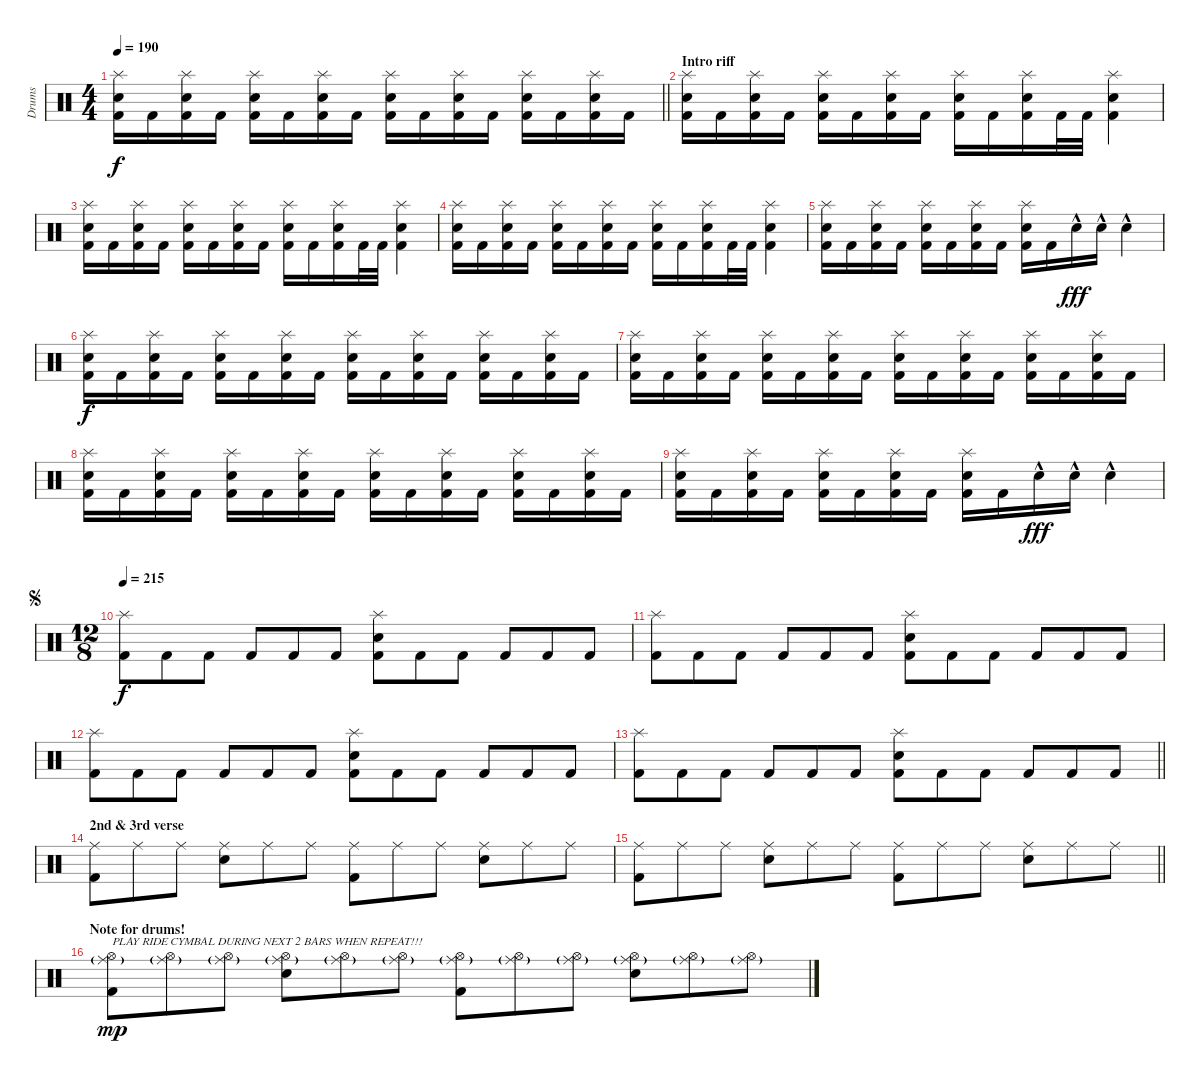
\track ("Drums" "Drums") {instrument percussion bank 127}
\staff {score}
\articulation defaults
\ts (4 4)
\tempo 190
\clef neutral
\barLineRight lightlight
\ks c
("Splash (hit)" "Electric Snare (hit)" "Kick (hit) 2").16{dy f} "Kick (hit) 2".16 ("Splash (hit)" "Electric Snare (hit)" "Kick (hit) 2").16 "Kick (hit) 2".16 ("Splash (hit)" "Electric Snare (hit)" "Kick (hit) 2").16 "Kick (hit) 2".16 ("Splash (hit)" "Electric Snare (hit)" "Kick (hit) 2").16 "Kick (hit) 2".16 ("Splash (hit)" "Electric Snare (hit)" "Kick (hit) 2").16 "Kick (hit) 2".16 ("Splash (hit)" "Electric Snare (hit)" "Kick (hit) 2").16 "Kick (hit) 2".16 ("Splash (hit)" "Electric Snare (hit)" "Kick (hit) 2").16 "Kick (hit) 2".16 ("Splash (hit)" "Electric Snare (hit)" "Kick (hit) 2").16 "Kick (hit) 2".16 |
\section ("" "Intro riff")
("Splash (hit)" "Electric Snare (hit)" "Kick (hit) 2").16 "Kick (hit) 2".16 ("Splash (hit)" "Electric Snare (hit)" "Kick (hit) 2").16 "Kick (hit) 2".16 ("Splash (hit)" "Electric Snare (hit)" "Kick (hit) 2").16 "Kick (hit) 2".16 ("Splash (hit)" "Electric Snare (hit)" "Kick (hit) 2").16 "Kick (hit) 2".16 ("Splash (hit)" "Electric Snare (hit)" "Kick (hit) 2").16 "Kick (hit) 2".16 ("Splash (hit)" "Electric Snare (hit)" "Kick (hit) 2").16 "Kick (hit) 2".32 "Kick (hit) 2".32 ("Splash (hit)" "Electric Snare (hit)" "Kick (hit) 2").4 |
("Splash (hit)" "Electric Snare (hit)" "Kick (hit) 2").16 "Kick (hit) 2".16 ("Splash (hit)" "Electric Snare (hit)" "Kick (hit) 2").16 "Kick (hit) 2".16 ("Splash (hit)" "Electric Snare (hit)" "Kick (hit) 2").16 "Kick (hit) 2".16 ("Splash (hit)" "Electric Snare (hit)" "Kick (hit) 2").16 "Kick (hit) 2".16 ("Splash (hit)" "Electric Snare (hit)" "Kick (hit) 2").16 "Kick (hit) 2".16 ("Splash (hit)" "Electric Snare (hit)" "Kick (hit) 2").16 "Kick (hit) 2".32 "Kick (hit) 2".32 ("Splash (hit)" "Electric Snare (hit)" "Kick (hit) 2").4 |
("Splash (hit)" "Electric Snare (hit)" "Kick (hit) 2").16 "Kick (hit) 2".16 ("Splash (hit)" "Electric Snare (hit)" "Kick (hit) 2").16 "Kick (hit) 2".16 ("Splash (hit)" "Electric Snare (hit)" "Kick (hit) 2").16 "Kick (hit) 2".16 ("Splash (hit)" "Electric Snare (hit)" "Kick (hit) 2").16 "Kick (hit) 2".16 ("Splash (hit)" "Electric Snare (hit)" "Kick (hit) 2").16 "Kick (hit) 2".16 ("Splash (hit)" "Electric Snare (hit)" "Kick (hit) 2").16 "Kick (hit) 2".32 "Kick (hit) 2".32 ("Splash (hit)" "Electric Snare (hit)" "Kick (hit) 2").4 |
("Splash (hit)" "Electric Snare (hit)" "Kick (hit) 2").16 "Kick (hit) 2".16 ("Splash (hit)" "Electric Snare (hit)" "Kick (hit) 2").16 "Kick (hit) 2".16 ("Splash (hit)" "Electric Snare (hit)" "Kick (hit) 2").16 "Kick (hit) 2".16 ("Splash (hit)" "Electric Snare (hit)" "Kick (hit) 2").16 "Kick (hit) 2".16 ("Splash (hit)" "Electric Snare (hit)" "Kick (hit) 2").16 "Kick (hit) 2".16 "Electric Snare (hit)"{hac}.16{dy fff} "Electric Snare (hit)"{hac}.16 "Electric Snare (hit)"{hac}.4 |
("Splash (hit)" "Electric Snare (hit)" "Kick (hit) 2").16{dy f} "Kick (hit) 2".16 ("Splash (hit)" "Electric Snare (hit)" "Kick (hit) 2").16 "Kick (hit) 2".16 ("Splash (hit)" "Electric Snare (hit)" "Kick (hit) 2").16 "Kick (hit) 2".16 ("Splash (hit)" "Electric Snare (hit)" "Kick (hit) 2").16 "Kick (hit) 2".16 ("Splash (hit)" "Electric Snare (hit)" "Kick (hit) 2").16 "Kick (hit) 2".16 ("Splash (hit)" "Electric Snare (hit)" "Kick (hit) 2").16 "Kick (hit) 2".16 ("Splash (hit)" "Electric Snare (hit)" "Kick (hit) 2").16 "Kick (hit) 2".16 ("Splash (hit)" "Electric Snare (hit)" "Kick (hit) 2").16 "Kick (hit) 2".16 |
("Splash (hit)" "Electric Snare (hit)" "Kick (hit) 2").16 "Kick (hit) 2".16 ("Splash (hit)" "Electric Snare (hit)" "Kick (hit) 2").16 "Kick (hit) 2".16 ("Splash (hit)" "Electric Snare (hit)" "Kick (hit) 2").16 "Kick (hit) 2".16 ("Splash (hit)" "Electric Snare (hit)" "Kick (hit) 2").16 "Kick (hit) 2".16 ("Splash (hit)" "Electric Snare (hit)" "Kick (hit) 2").16 "Kick (hit) 2".16 ("Splash (hit)" "Electric Snare (hit)" "Kick (hit) 2").16 "Kick (hit) 2".16 ("Splash (hit)" "Electric Snare (hit)" "Kick (hit) 2").16 "Kick (hit) 2".16 ("Splash (hit)" "Electric Snare (hit)" "Kick (hit) 2").16 "Kick (hit) 2".16 |
("Splash (hit)" "Electric Snare (hit)" "Kick (hit) 2").16 "Kick (hit) 2".16 ("Splash (hit)" "Electric Snare (hit)" "Kick (hit) 2").16 "Kick (hit) 2".16 ("Splash (hit)" "Electric Snare (hit)" "Kick (hit) 2").16 "Kick (hit) 2".16 ("Splash (hit)" "Electric Snare (hit)" "Kick (hit) 2").16 "Kick (hit) 2".16 ("Splash (hit)" "Electric Snare (hit)" "Kick (hit) 2").16 "Kick (hit) 2".16 ("Splash (hit)" "Electric Snare (hit)" "Kick (hit) 2").16 "Kick (hit) 2".16 ("Splash (hit)" "Electric Snare (hit)" "Kick (hit) 2").16 "Kick (hit) 2".16 ("Splash (hit)" "Electric Snare (hit)" "Kick (hit) 2").16 "Kick (hit) 2".16 |
("Splash (hit)" "Electric Snare (hit)" "Kick (hit) 2").16 "Kick (hit) 2".16 ("Splash (hit)" "Electric Snare (hit)" "Kick (hit) 2").16 "Kick (hit) 2".16 ("Splash (hit)" "Electric Snare (hit)" "Kick (hit) 2").16 "Kick (hit) 2".16 ("Splash (hit)" "Electric Snare (hit)" "Kick (hit) 2").16 "Kick (hit) 2".16 ("Splash (hit)" "Electric Snare (hit)" "Kick (hit) 2").16 "Kick (hit) 2".16 "Electric Snare (hit)"{hac}.16{dy fff} "Electric Snare (hit)"{hac}.16 "Electric Snare (hit)"{hac}.4 |
\ts (12 8)
\jump segno
\tempo 215
("Splash (hit)" "Kick (hit) 2").8{dy f} "Kick (hit) 2".8 "Kick (hit) 2".8 "Kick (hit) 2".8 "Kick (hit) 2".8 "Kick (hit) 2".8 ("Splash (hit)" "Electric Snare (hit)" "Kick (hit) 2").8 "Kick (hit) 2".8 "Kick (hit) 2".8 "Kick (hit) 2".8 "Kick (hit) 2".8 "Kick (hit) 2".8 |
("Splash (hit)" "Kick (hit) 2").8 "Kick (hit) 2".8 "Kick (hit) 2".8 "Kick (hit) 2".8 "Kick (hit) 2".8 "Kick (hit) 2".8 ("Splash (hit)" "Electric Snare (hit)" "Kick (hit) 2").8 "Kick (hit) 2".8 "Kick (hit) 2".8 "Kick (hit) 2".8 "Kick (hit) 2".8 "Kick (hit) 2".8 |
("Splash (hit)" "Kick (hit) 2").8 "Kick (hit) 2".8 "Kick (hit) 2".8 "Kick (hit) 2".8 "Kick (hit) 2".8 "Kick (hit) 2".8 ("Splash (hit)" "Electric Snare (hit)" "Kick (hit) 2").8 "Kick (hit) 2".8 "Kick (hit) 2".8 "Kick (hit) 2".8 "Kick (hit) 2".8 "Kick (hit) 2".8 |
\barLineRight lightlight
("Splash (hit)" "Kick (hit) 2").8 "Kick (hit) 2".8 "Kick (hit) 2".8 "Kick (hit) 2".8 "Kick (hit) 2".8 "Kick (hit) 2".8 ("Splash (hit)" "Electric Snare (hit)" "Kick (hit) 2").8 "Kick (hit) 2".8 "Kick (hit) 2".8 "Kick (hit) 2".8 "Kick (hit) 2".8 "Kick (hit) 2".8 |
\section ("" "2nd & 3rd verse")
("Ride (middle)" "Kick (hit) 2").8 "Ride (middle)".8 "Ride (middle)".8 ("Ride (middle)" "Electric Snare (hit)").8 "Ride (middle)".8 "Ride (middle)".8 ("Ride (middle)" "Kick (hit) 2").8 "Ride (middle)".8 "Ride (middle)".8 ("Ride (middle)" "Electric Snare (hit)").8 "Ride (middle)".8 "Ride (middle)".8 |
\barLineRight lightlight
("Ride (middle)" "Kick (hit) 2").8 "Ride (middle)".8 "Ride (middle)".8 ("Ride (middle)" "Electric Snare (hit)").8 "Ride (middle)".8 "Ride (middle)".8 ("Ride (middle)" "Kick (hit) 2").8 "Ride (middle)".8 "Ride (middle)".8 ("Ride (middle)" "Electric Snare (hit)").8 "Ride (middle)".8 "Ride (middle)".8 |
\section ("" "Note for drums!")
("Ride (middle)"{g} "Hi-Hat (open)" "Kick (hit) 2").8{txt "PLAY RIDE CYMBAL DURING NEXT 2 BARS WHEN REPEAT!!!" dy mp} ("Ride (middle)"{g} "Hi-Hat (open)").8 ("Ride (middle)"{g} "Hi-Hat (open)").8 ("Ride (middle)"{g} "Hi-Hat (open)" "Electric Snare (hit)").8 ("Ride (middle)"{g} "Hi-Hat (open)").8 ("Ride (middle)"{g} "Hi-Hat (open)").8 ("Ride (middle)"{g} "Hi-Hat (open)" "Kick (hit) 2").8 ("Ride (middle)"{g} "Hi-Hat (open)").8 ("Ride (middle)"{g} "Hi-Hat (open)").8 ("Ride (middle)"{g} "Hi-Hat (open)" "Electric Snare (hit)").8 ("Ride (middle)"{g} "Hi-Hat (open)").8 ("Ride (middle)"{g} "Hi-Hat (open)").8
